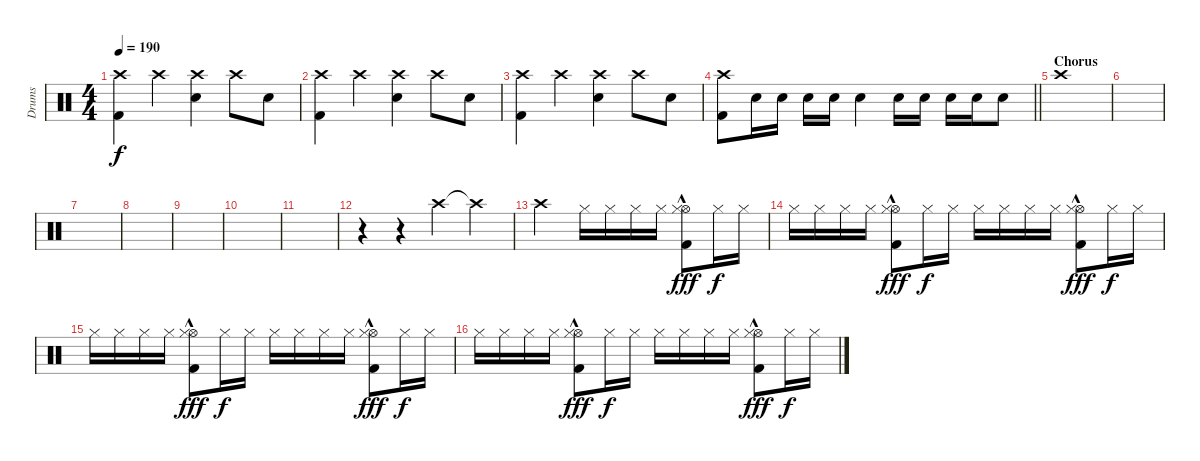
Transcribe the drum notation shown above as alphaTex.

\track ("Drums" "Drums") {instrument percussion}
\staff {score}
\articulation defaults
\ts (4 4)
\tempo 190
\clef neutral
\ks c
("Crash high (hit)" "Kick (hit) 2").4{dy f} "Crash high (hit)".4 ("Crash high (hit)" "Electric Snare (hit)").4 "Crash high (hit)".8 "Electric Snare (hit)".8 |
("Crash high (hit)" "Kick (hit) 2").4 "Crash high (hit)".4 ("Crash high (hit)" "Electric Snare (hit)").4 "Crash high (hit)".8 "Electric Snare (hit)".8 |
("Crash high (hit)" "Kick (hit) 2").4 "Crash high (hit)".4 ("Crash high (hit)" "Electric Snare (hit)").4 "Crash high (hit)".8 "Electric Snare (hit)".8 |
\barLineRight lightlight
("Crash high (hit)" "Kick (hit) 2").8 "Electric Snare (hit)".16 "Electric Snare (hit)".16 "Electric Snare (hit)".16 "Electric Snare (hit)".16 "Electric Snare (hit)".4 "Electric Snare (hit)".16 "Electric Snare (hit)".16 "Electric Snare (hit)".16 "Electric Snare (hit)".16 "Electric Snare (hit)".8 |
\section ("" "Chorus")
"Crash high (hit)".1 |
|
|
|
|
|
|
r.4 r.4{volume 13} "Crash high (hit)".4 "Crash high (hit)"{t}.4 |
"Crash high (hit)".2 "Hi-Hat (closed)".16 "Hi-Hat (closed)".16 "Hi-Hat (closed)".16 "Hi-Hat (closed)".16 ("Hi-Hat (open)" "Hi-Hat (closed)"{hac} "Kick (hit) 2"{hac}).8{dy fff} "Hi-Hat (closed)".16{dy f} "Hi-Hat (closed)".16 |
"Hi-Hat (closed)".16 "Hi-Hat (closed)".16 "Hi-Hat (closed)".16 "Hi-Hat (closed)".16 ("Hi-Hat (open)" "Hi-Hat (closed)"{hac} "Kick (hit) 2"{hac}).8{dy fff} "Hi-Hat (closed)".16{dy f} "Hi-Hat (closed)".16 "Hi-Hat (closed)".16 "Hi-Hat (closed)".16 "Hi-Hat (closed)".16 "Hi-Hat (closed)".16 ("Hi-Hat (open)" "Hi-Hat (closed)"{hac} "Kick (hit) 2"{hac}).8{dy fff} "Hi-Hat (closed)".16{dy f} "Hi-Hat (closed)".16 |
"Hi-Hat (closed)".16 "Hi-Hat (closed)".16 "Hi-Hat (closed)".16 "Hi-Hat (closed)".16 ("Hi-Hat (open)" "Hi-Hat (closed)"{hac} "Kick (hit) 2"{hac}).8{dy fff} "Hi-Hat (closed)".16{dy f} "Hi-Hat (closed)".16 "Hi-Hat (closed)".16 "Hi-Hat (closed)".16 "Hi-Hat (closed)".16 "Hi-Hat (closed)".16 ("Hi-Hat (open)" "Hi-Hat (closed)"{hac} "Kick (hit) 2"{hac}).8{dy fff} "Hi-Hat (closed)".16{dy f} "Hi-Hat (closed)".16 |
"Hi-Hat (closed)".16 "Hi-Hat (closed)".16 "Hi-Hat (closed)".16 "Hi-Hat (closed)".16 ("Hi-Hat (open)" "Hi-Hat (closed)"{hac} "Kick (hit) 2"{hac}).8{dy fff} "Hi-Hat (closed)".16{dy f} "Hi-Hat (closed)".16 "Hi-Hat (closed)".16 "Hi-Hat (closed)".16 "Hi-Hat (closed)".16 "Hi-Hat (closed)".16 ("Hi-Hat (open)" "Hi-Hat (closed)"{hac} "Kick (hit) 2"{hac}).8{dy fff} "Hi-Hat (closed)".16{dy f} "Hi-Hat (closed)".16
